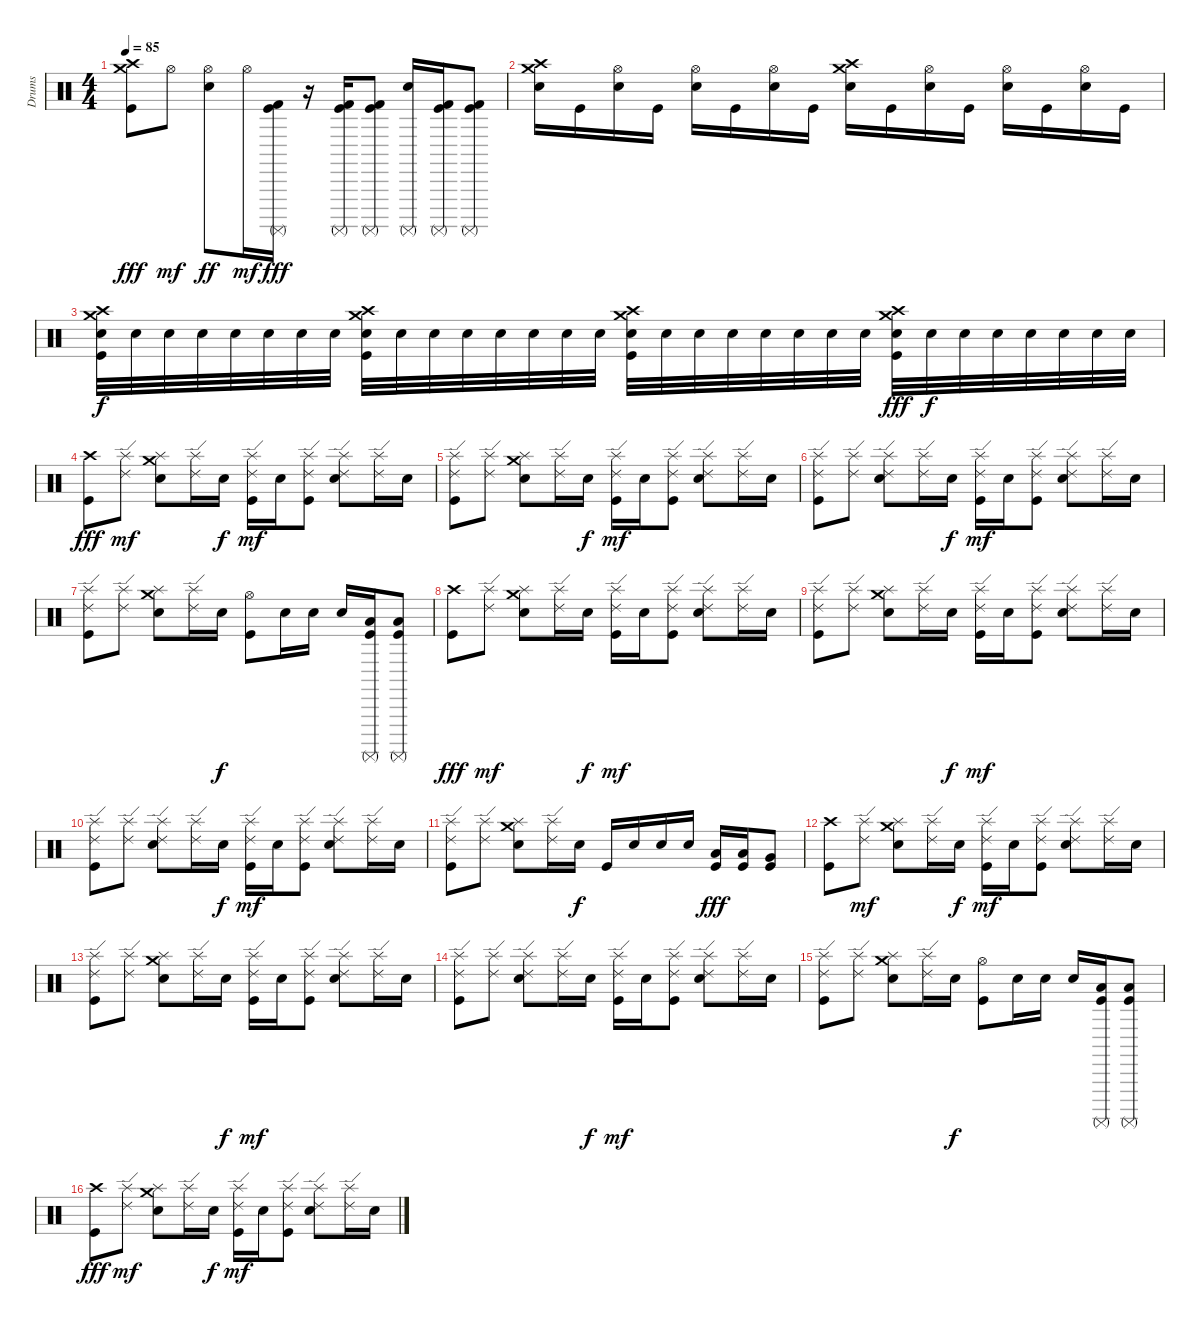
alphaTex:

\track ("Drums" "Drums") {instrument percussion}
\staff {score}
\articulation defaults
\ts (4 4)
\tempo 85
\clef neutral
\ks c
("Crash high (hit)" "Crash medium (hit)" "Kick (hit)").8{dy fff} "Hi-Hat (open)".8{dy mf} ("Hi-Hat (open)" "Snare (hit) 2").8{dy ff} "Hi-Hat (open)".16{dy mf} ("Surdo (mute)" "Kick (hit) 2" "Kick (hit)").16{dy fff} r.16 ("Surdo (mute)" "Kick (hit) 2" "Kick (hit)").16 ("Surdo (mute)" "Kick (hit) 2" "Kick (hit)").8 ("Surdo (mute)" "Snare (hit) 2").16 ("Surdo (mute)" "Kick (hit) 2" "Kick (hit)").16 ("Surdo (mute)" "Kick (hit) 2" "Kick (hit)").8 |
("Crash high (hit)" "Crash medium (hit)" "Snare (hit) 2").16 "Kick (hit)".16 ("Hi-Hat (open)" "Snare (hit) 2").16 "Kick (hit)".16 ("Hi-Hat (open)" "Snare (hit) 2").16 "Kick (hit)".16 ("Hi-Hat (open)" "Snare (hit) 2").16 "Kick (hit)".16 ("Crash high (hit)" "Crash medium (hit)" "Snare (hit) 2").16 "Kick (hit)".16 ("Hi-Hat (open)" "Snare (hit) 2").16 "Kick (hit)".16 ("Hi-Hat (open)" "Snare (hit) 2").16 "Kick (hit)".16 ("Hi-Hat (open)" "Snare (hit) 2").16 "Kick (hit)".16 |
("Crash high (hit)" "Crash medium (hit)" "Snare (hit) 2" "Kick (hit)").32{dy f} "Snare (hit) 2".32 "Snare (hit) 2".32 "Snare (hit) 2".32 "Snare (hit) 2".32 "Snare (hit) 2".32 "Snare (hit) 2".32 "Snare (hit) 2".32 ("Crash high (hit)" "Crash medium (hit)" "Snare (hit) 2" "Kick (hit)").32 "Snare (hit) 2".32 "Snare (hit) 2".32 "Snare (hit) 2".32 "Snare (hit) 2".32 "Snare (hit) 2".32 "Snare (hit) 2".32 "Snare (hit) 2".32 ("Crash high (hit)" "Crash medium (hit)" "Snare (hit) 2" "Kick (hit)").32 "Snare (hit) 2".32 "Snare (hit) 2".32 "Snare (hit) 2".32 "Snare (hit) 2".32 "Snare (hit) 2".32 "Snare (hit) 2".32 "Snare (hit) 2".32 ("Crash high (hit)" "Crash medium (hit)" "Snare (hit) 2" "Kick (hit)").32{dy fff} "Snare (hit) 2".32{dy f} "Snare (hit) 2".32 "Snare (hit) 2".32 "Snare (hit) 2".32 "Snare (hit) 2".32 "Snare (hit) 2".32 "Snare (hit) 2".32 |
("Crash high (hit)" "Kick (hit)").8{dy fff} ("Ride (edge) 2" "Splash (hit)").8{dy mf} ("Crash medium (hit)" "Splash (hit)" "Snare (hit) 2").8 ("Ride (edge) 2" "Splash (hit)").16 "Snare (hit) 2".16{dy f} ("Ride (edge) 2" "Splash (hit)" "Kick (hit)").16{dy mf} "Snare (hit) 2".16 ("Ride (edge) 2" "Splash (hit)" "Kick (hit)").8 ("Ride (edge) 2" "Splash (hit)" "Snare (hit) 2").8 ("Ride (edge) 2" "Splash (hit)").16 "Snare (hit) 2".16 |
("Ride (edge) 2" "Splash (hit)" "Kick (hit)").8 ("Ride (edge) 2" "Splash (hit)").8 ("Crash medium (hit)" "Splash (hit)" "Snare (hit) 2").8 ("Ride (edge) 2" "Splash (hit)").16 "Snare (hit) 2".16{dy f} ("Ride (edge) 2" "Splash (hit)" "Kick (hit)").16{dy mf} "Snare (hit) 2".16 ("Ride (edge) 2" "Splash (hit)" "Kick (hit)").8 ("Ride (edge) 2" "Splash (hit)" "Snare (hit) 2").8 ("Ride (edge) 2" "Splash (hit)").16 "Snare (hit) 2".16 |
("Ride (edge) 2" "Splash (hit)" "Kick (hit)").8 ("Ride (edge) 2" "Splash (hit)").8 ("Ride (edge) 2" "Splash (hit)" "Snare (hit) 2").8 ("Ride (edge) 2" "Splash (hit)").16 "Snare (hit) 2".16{dy f} ("Ride (edge) 2" "Splash (hit)" "Kick (hit)").16{dy mf} "Snare (hit) 2".16 ("Ride (edge) 2" "Splash (hit)" "Kick (hit)").8 ("Ride (edge) 2" "Splash (hit)" "Snare (hit) 2").8 ("Ride (edge) 2" "Splash (hit)").16 "Snare (hit) 2".16 |
("Ride (edge) 2" "Splash (hit)" "Kick (hit)").8 ("Ride (edge) 2" "Splash (hit)").8 ("Crash medium (hit)" "Splash (hit)" "Snare (hit) 2").8 ("Ride (edge) 2" "Splash (hit)").16 "Snare (hit) 2".16{dy f} ("Hi-Hat (open)" "Kick (hit)").8 "Snare (hit) 2".16 "Snare (hit) 2".16 "Snare (hit) 2".16 ("Surdo (mute)" "Low Floor Tom (hit)" "Kick (hit)").16 ("Surdo (mute)" "Low Floor Tom (hit)" "Kick (hit)").8 |
("Crash high (hit)" "Kick (hit)").8{dy fff} ("Ride (edge) 2" "Splash (hit)").8{dy mf} ("Crash medium (hit)" "Splash (hit)" "Snare (hit) 2").8 ("Ride (edge) 2" "Splash (hit)").16 "Snare (hit) 2".16{dy f} ("Ride (edge) 2" "Splash (hit)" "Kick (hit)").16{dy mf} "Snare (hit) 2".16 ("Ride (edge) 2" "Splash (hit)" "Kick (hit)").8 ("Ride (edge) 2" "Splash (hit)" "Snare (hit) 2").8 ("Ride (edge) 2" "Splash (hit)").16 "Snare (hit) 2".16 |
("Ride (edge) 2" "Splash (hit)" "Kick (hit)").8 ("Ride (edge) 2" "Splash (hit)").8 ("Crash medium (hit)" "Splash (hit)" "Snare (hit) 2").8 ("Ride (edge) 2" "Splash (hit)").16 "Snare (hit) 2".16{dy f} ("Ride (edge) 2" "Splash (hit)" "Kick (hit)").16{dy mf} "Snare (hit) 2".16 ("Ride (edge) 2" "Splash (hit)" "Kick (hit)").8 ("Ride (edge) 2" "Splash (hit)" "Snare (hit) 2").8 ("Ride (edge) 2" "Splash (hit)").16 "Snare (hit) 2".16 |
("Ride (edge) 2" "Splash (hit)" "Kick (hit)").8 ("Ride (edge) 2" "Splash (hit)").8 ("Ride (edge) 2" "Splash (hit)" "Snare (hit) 2").8 ("Ride (edge) 2" "Splash (hit)").16 "Snare (hit) 2".16{dy f} ("Ride (edge) 2" "Splash (hit)" "Kick (hit)").16{dy mf} "Snare (hit) 2".16 ("Ride (edge) 2" "Splash (hit)" "Kick (hit)").8 ("Ride (edge) 2" "Splash (hit)" "Snare (hit) 2").8 ("Ride (edge) 2" "Splash (hit)").16 "Snare (hit) 2".16 |
("Ride (edge) 2" "Splash (hit)" "Kick (hit)").8 ("Ride (edge) 2" "Splash (hit)").8 ("Crash medium (hit)" "Splash (hit)" "Snare (hit) 2").8 ("Ride (edge) 2" "Splash (hit)").16 "Snare (hit) 2".16{dy f} "Kick (hit)".16 "Snare (hit) 2".16 "Snare (hit) 2".16 "Snare (hit) 2".16 ("Low Tom (hit)" "Kick (hit)").16{dy fff} ("Low Tom (hit)" "Kick (hit)").16 ("Very Low Tom (hit)" "Kick (hit)").8 |
("Crash high (hit)" "Kick (hit)").8 ("Ride (edge) 2" "Splash (hit)").8{dy mf} ("Crash medium (hit)" "Splash (hit)" "Snare (hit) 2").8 ("Ride (edge) 2" "Splash (hit)").16 "Snare (hit) 2".16{dy f} ("Ride (edge) 2" "Splash (hit)" "Kick (hit)").16{dy mf} "Snare (hit) 2".16 ("Ride (edge) 2" "Splash (hit)" "Kick (hit)").8 ("Ride (edge) 2" "Splash (hit)" "Snare (hit) 2").8 ("Ride (edge) 2" "Splash (hit)").16 "Snare (hit) 2".16 |
("Ride (edge) 2" "Splash (hit)" "Kick (hit)").8 ("Ride (edge) 2" "Splash (hit)").8 ("Crash medium (hit)" "Splash (hit)" "Snare (hit) 2").8 ("Ride (edge) 2" "Splash (hit)").16 "Snare (hit) 2".16{dy f} ("Ride (edge) 2" "Splash (hit)" "Kick (hit)").16{dy mf} "Snare (hit) 2".16 ("Ride (edge) 2" "Splash (hit)" "Kick (hit)").8 ("Ride (edge) 2" "Splash (hit)" "Snare (hit) 2").8 ("Ride (edge) 2" "Splash (hit)").16 "Snare (hit) 2".16 |
("Ride (edge) 2" "Splash (hit)" "Kick (hit)").8 ("Ride (edge) 2" "Splash (hit)").8 ("Ride (edge) 2" "Splash (hit)" "Snare (hit) 2").8 ("Ride (edge) 2" "Splash (hit)").16 "Snare (hit) 2".16{dy f} ("Ride (edge) 2" "Splash (hit)" "Kick (hit)").16{dy mf} "Snare (hit) 2".16 ("Ride (edge) 2" "Splash (hit)" "Kick (hit)").8 ("Ride (edge) 2" "Splash (hit)" "Snare (hit) 2").8 ("Ride (edge) 2" "Splash (hit)").16 "Snare (hit) 2".16 |
("Ride (edge) 2" "Splash (hit)" "Kick (hit)").8 ("Ride (edge) 2" "Splash (hit)").8 ("Crash medium (hit)" "Splash (hit)" "Snare (hit) 2").8 ("Ride (edge) 2" "Splash (hit)").16 "Snare (hit) 2".16{dy f} ("Hi-Hat (open)" "Kick (hit)").8 "Snare (hit) 2".16 "Snare (hit) 2".16 "Snare (hit) 2".16 ("Surdo (mute)" "Low Floor Tom (hit)" "Kick (hit)").16 ("Surdo (mute)" "Low Floor Tom (hit)" "Kick (hit)").8 |
("Crash high (hit)" "Kick (hit)").8{dy fff} ("Ride (edge) 2" "Splash (hit)").8{dy mf} ("Crash medium (hit)" "Splash (hit)" "Snare (hit) 2").8 ("Ride (edge) 2" "Splash (hit)").16 "Snare (hit) 2".16{dy f} ("Ride (edge) 2" "Splash (hit)" "Kick (hit)").16{dy mf} "Snare (hit) 2".16 ("Ride (edge) 2" "Splash (hit)" "Kick (hit)").8 ("Ride (edge) 2" "Splash (hit)" "Snare (hit) 2").8 ("Ride (edge) 2" "Splash (hit)").16 "Snare (hit) 2".16
